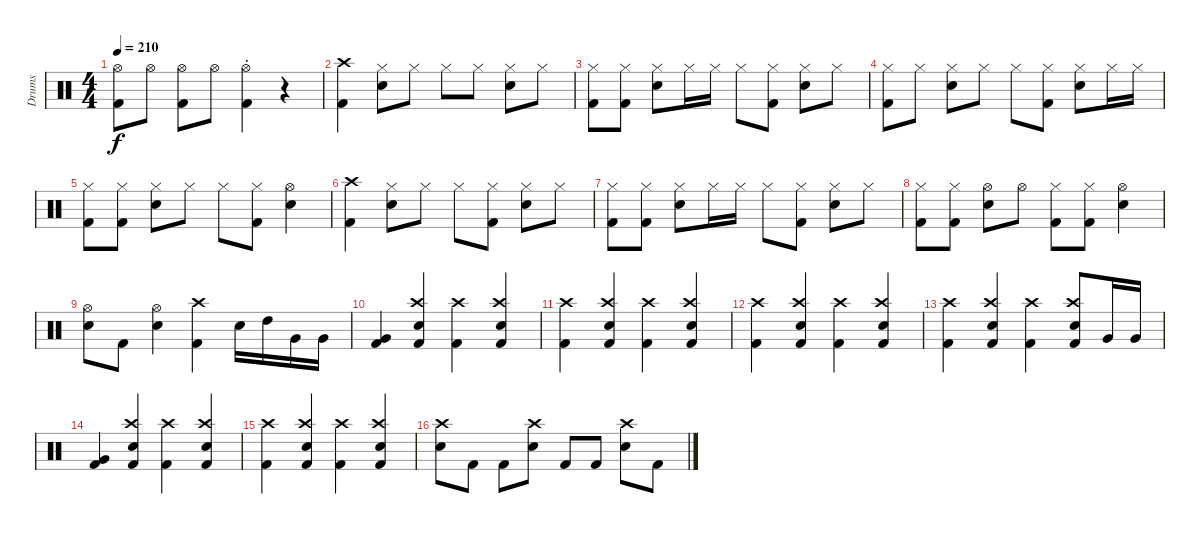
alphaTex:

\track ("Drums" "Drums") {instrument percussion}
\staff {score}
\articulation defaults
\ts (4 4)
\tempo 210
\clef neutral
\ks c
("Hi-Hat (open)" "Kick (hit) 2").8{dy f} "Hi-Hat (open)".8 ("Hi-Hat (open)" "Kick (hit) 2").8 "Hi-Hat (open)".8 ("Hi-Hat (open)"{st} "Kick (hit) 2"{st}).4 r.4 |
("Crash high (hit)" "Kick (hit) 2").4 ("Hi-Hat (closed)" "Snare (hit) 2").8 "Hi-Hat (closed)".8 "Hi-Hat (closed)".8 "Hi-Hat (closed)".8 ("Hi-Hat (closed)" "Snare (hit) 2").8 "Hi-Hat (closed)".8 |
("Hi-Hat (closed)" "Kick (hit) 2").8 ("Hi-Hat (closed)" "Kick (hit) 2").8 ("Hi-Hat (closed)" "Snare (hit) 2").8 "Hi-Hat (closed)".16 "Hi-Hat (closed)".16 "Hi-Hat (closed)".8 ("Hi-Hat (closed)" "Kick (hit) 2").8 ("Hi-Hat (closed)" "Snare (hit) 2").8 "Hi-Hat (closed)".8 |
("Hi-Hat (closed)" "Kick (hit) 2").8 "Hi-Hat (closed)".8 ("Hi-Hat (closed)" "Snare (hit) 2").8 "Hi-Hat (closed)".8 "Hi-Hat (closed)".8 ("Hi-Hat (closed)" "Kick (hit) 2").8 ("Hi-Hat (closed)" "Snare (hit) 2").8 "Hi-Hat (closed)".16 "Hi-Hat (closed)".16 |
("Hi-Hat (closed)" "Kick (hit) 2").8 ("Hi-Hat (closed)" "Kick (hit) 2").8 ("Hi-Hat (closed)" "Snare (hit) 2").8 "Hi-Hat (closed)".8 "Hi-Hat (closed)".8 ("Hi-Hat (closed)" "Kick (hit) 2").8 ("Hi-Hat (open)" "Snare (hit) 2").4 |
("Crash high (hit)" "Kick (hit) 2").4 ("Hi-Hat (closed)" "Snare (hit) 2").8 "Hi-Hat (closed)".8 "Hi-Hat (closed)".8 ("Hi-Hat (closed)" "Kick (hit) 2").8 ("Hi-Hat (closed)" "Snare (hit) 2").8 "Hi-Hat (closed)".8 |
("Hi-Hat (closed)" "Kick (hit) 2").8 ("Hi-Hat (closed)" "Kick (hit) 2").8 ("Hi-Hat (closed)" "Snare (hit) 2").8 "Hi-Hat (closed)".16 "Hi-Hat (closed)".16 "Hi-Hat (closed)".8 ("Hi-Hat (closed)" "Kick (hit) 2").8 ("Hi-Hat (closed)" "Snare (hit) 2").8 "Hi-Hat (closed)".8 |
("Hi-Hat (closed)" "Kick (hit) 2").8 ("Hi-Hat (closed)" "Kick (hit) 2").8 ("Hi-Hat (open)" "Snare (hit) 2").8 "Hi-Hat (open)".8 ("Hi-Hat (closed)" "Kick (hit) 2").8 ("Hi-Hat (closed)" "Kick (hit) 2").8 ("Hi-Hat (open)" "Snare (hit) 2").4 |
("Hi-Hat (open)" "Snare (hit) 2").8 "Kick (hit) 2".8 ("Hi-Hat (open)" "Snare (hit) 2").4 ("Crash high (hit)" "Kick (hit) 2").4 "Snare (hit) 2".16 "High Tom (hit)".16 "Very Low Tom (hit)".16 "Very Low Tom (hit)".16 |
("Very Low Tom (hit)" "Kick (hit) 2").4 ("Crash high (hit)" "Snare (hit) 2" "Kick (hit) 2").4 ("Crash high (hit)" "Kick (hit) 2").4 ("Crash high (hit)" "Snare (hit) 2" "Kick (hit) 2").4 |
("Crash high (hit)" "Kick (hit) 2").4 ("Crash high (hit)" "Snare (hit) 2" "Kick (hit) 2").4 ("Crash high (hit)" "Kick (hit) 2").4 ("Crash high (hit)" "Snare (hit) 2" "Kick (hit) 2").4 |
("Crash high (hit)" "Kick (hit) 2").4 ("Crash high (hit)" "Snare (hit) 2" "Kick (hit) 2").4 ("Crash high (hit)" "Kick (hit) 2").4 ("Crash high (hit)" "Snare (hit) 2" "Kick (hit) 2").4 |
("Crash high (hit)" "Kick (hit) 2").4 ("Crash high (hit)" "Snare (hit) 2" "Kick (hit) 2").4 ("Crash high (hit)" "Kick (hit) 2").4 ("Crash high (hit)" "Snare (hit) 2" "Kick (hit) 2").8 "Very Low Tom (hit)".16 "Very Low Tom (hit)".16 |
("Very Low Tom (hit)" "Kick (hit) 2").4 ("Crash high (hit)" "Snare (hit) 2" "Kick (hit) 2").4 ("Crash high (hit)" "Kick (hit) 2").4 ("Crash high (hit)" "Snare (hit) 2" "Kick (hit) 2").4 |
("Crash high (hit)" "Kick (hit) 2").4 ("Crash high (hit)" "Snare (hit) 2" "Kick (hit) 2").4 ("Crash high (hit)" "Kick (hit) 2").4 ("Crash high (hit)" "Snare (hit) 2" "Kick (hit) 2").4 |
("Crash high (hit)" "Snare (hit) 2").8 "Kick (hit) 2".8 "Kick (hit) 2".8 ("Crash high (hit)" "Snare (hit) 2").8 "Kick (hit) 2".8 "Kick (hit) 2".8 ("Crash high (hit)" "Snare (hit) 2").8 "Kick (hit) 2".8
